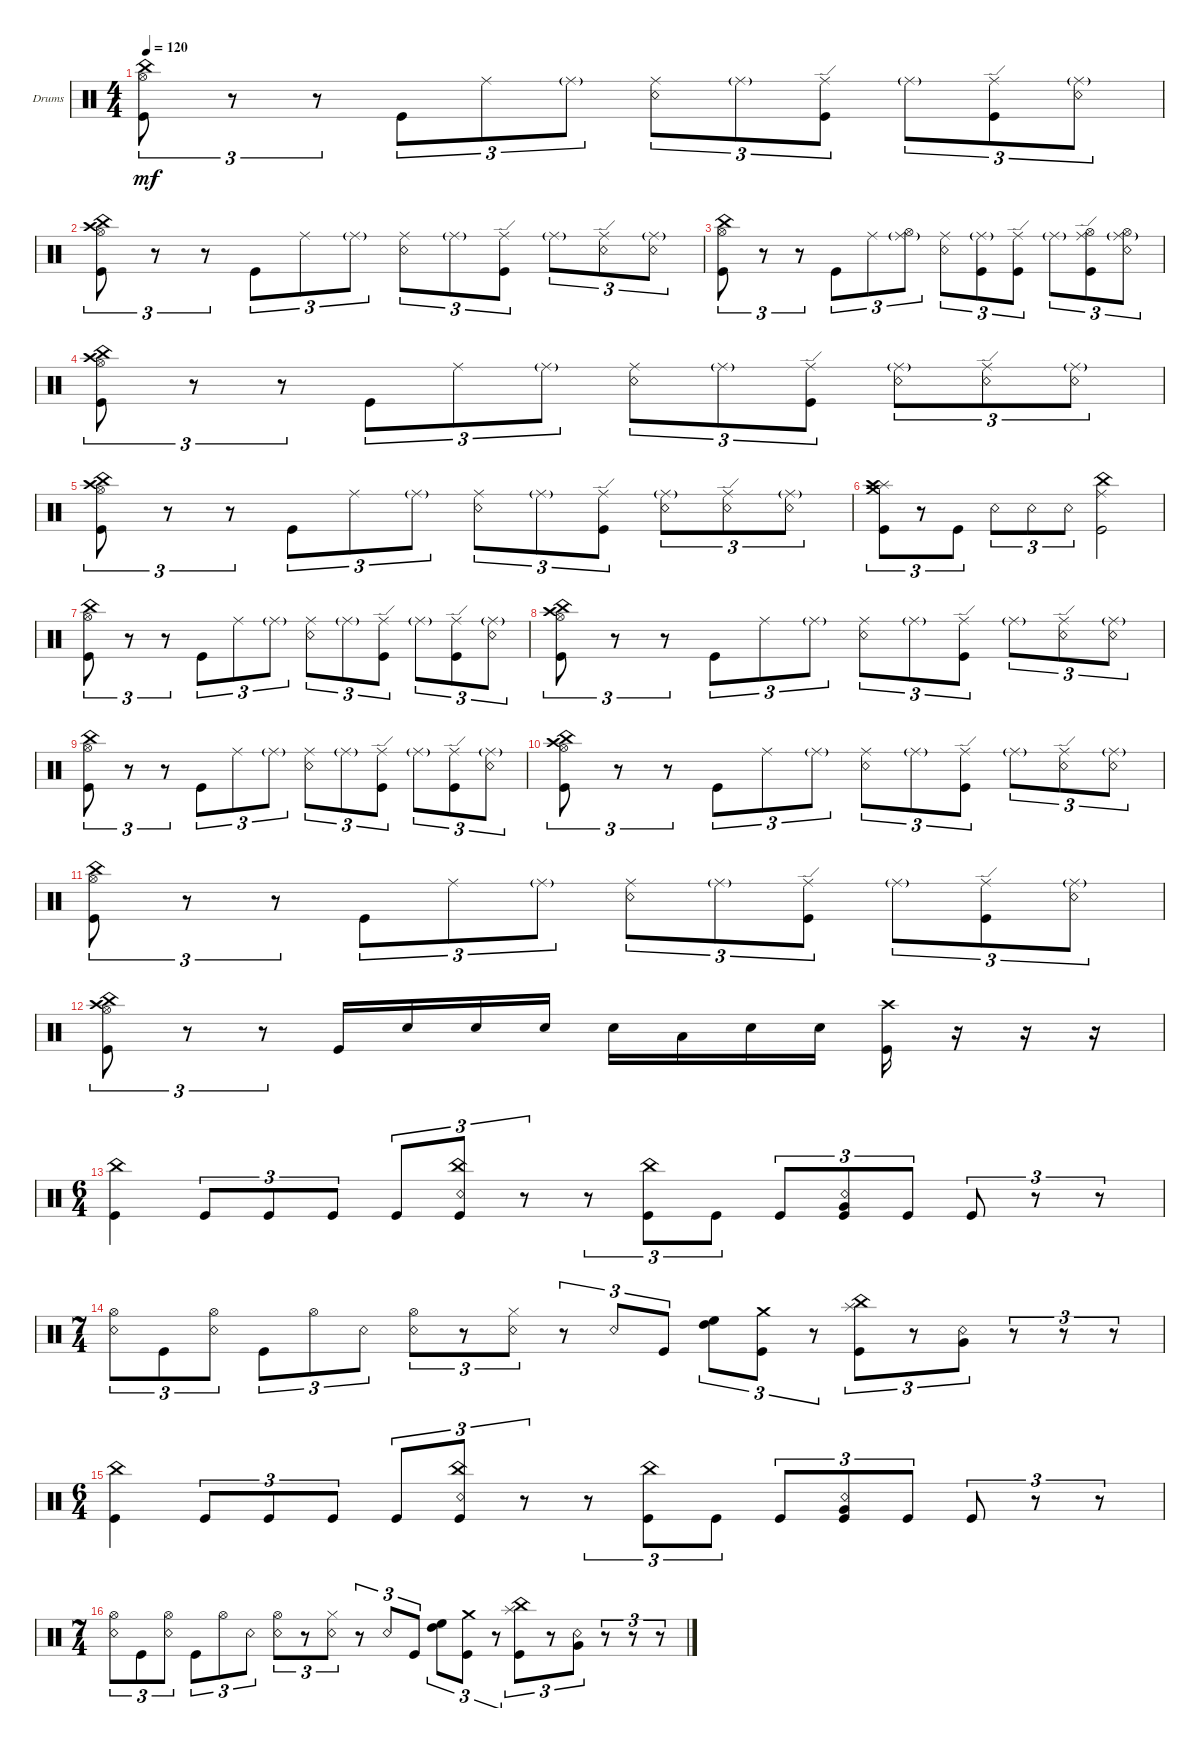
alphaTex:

\defaultSystemsLayout 4
\bracketExtendMode groupsimilarinstruments
\firstSystemTrackNameOrientation horizontal
\otherSystemsTrackNameOrientation horizontal
\track ("Drumkit" "Drums") {instrument percussion}
\staff {score}
\articulation defaults
\ts (4 4)
\tempo 120
\clef neutral
\ks c
("Kick (hit)" "Hi-Hat (open)" "China (hit)").8{tu (3 2) dy mf} r.8{tu (3 2)} r.8{tu (3 2)} "Kick (hit)".8{tu (3 2)} "Ride (middle)".8{tu (3 2)} "Ride (middle)"{g}.8{tu (3 2)} ("Ride (middle)" "Snare (rim shot)").8{tu (3 2)} "Ride (middle)"{g}.8{tu (3 2)} ("Ride (edge)" "Kick (hit)").8{tu (3 2)} "Ride (middle)"{g}.8{tu (3 2)} ("Ride (edge)" "Kick (hit)").8{tu (3 2)} ("Ride (middle)"{g} "Snare (rim shot)").8{tu (3 2)} |
("Kick (hit)" "Hi-Hat (open)" "China (hit)" "Crash high (hit)").8{tu (3 2)} r.8{tu (3 2)} r.8{tu (3 2)} "Kick (hit)".8{tu (3 2)} "Ride (middle)".8{tu (3 2)} "Ride (middle)"{g}.8{tu (3 2)} ("Ride (middle)" "Snare (rim shot)").8{tu (3 2)} "Ride (middle)"{g}.8{tu (3 2)} ("Ride (edge)" "Kick (hit)").8{tu (3 2)} "Ride (middle)"{g}.8{tu (3 2)} ("Ride (edge)" "Snare (rim shot)").8{tu (3 2)} ("Ride (middle)"{g} "Snare (rim shot)").8{tu (3 2)} |
("Kick (hit)" "Hi-Hat (open)" "China (hit)").8{tu (3 2)} r.8{tu (3 2)} r.8{tu (3 2)} "Kick (hit)".8{tu (3 2)} "Ride (middle)".8{tu (3 2)} ("Ride (middle)"{g} "Hi-Hat (open)").8{tu (3 2)} ("Ride (middle)" "Snare (rim shot)").8{tu (3 2)} ("Ride (middle)"{g} "Kick (hit)").8{tu (3 2)} ("Ride (edge)" "Kick (hit)").8{tu (3 2)} "Ride (middle)"{g}.8{tu (3 2)} ("Ride (edge)" "Kick (hit)" "Hi-Hat (open)").8{tu (3 2)} ("Ride (middle)"{g} "Snare (rim shot)" "Hi-Hat (open)").8{tu (3 2)} |
("Kick (hit)" "Hi-Hat (open)" "China (hit)" "Crash high (hit)").8{tu (3 2)} r.8{tu (3 2)} r.8{tu (3 2)} "Kick (hit)".8{tu (3 2)} "Ride (middle)".8{tu (3 2)} "Ride (middle)"{g}.8{tu (3 2)} ("Ride (middle)" "Snare (rim shot)").8{tu (3 2)} "Ride (middle)"{g}.8{tu (3 2)} ("Ride (edge)" "Kick (hit)").8{tu (3 2)} ("Ride (middle)"{g} "Snare (rim shot)").8{tu (3 2)} ("Ride (edge)" "Snare (rim shot)").8{tu (3 2)} ("Ride (middle)"{g} "Snare (rim shot)").8{tu (3 2)} |
("Kick (hit)" "Hi-Hat (open)" "China (hit)" "Crash high (hit)").8{tu (3 2)} r.8{tu (3 2)} r.8{tu (3 2)} "Kick (hit)".8{tu (3 2)} "Ride (middle)".8{tu (3 2)} "Ride (middle)"{g}.8{tu (3 2)} ("Ride (middle)" "Snare (rim shot)").8{tu (3 2)} "Ride (middle)"{g}.8{tu (3 2)} ("Ride (edge)" "Kick (hit)").8{tu (3 2)} ("Ride (middle)"{g} "Snare (rim shot)").8{tu (3 2)} ("Ride (edge)" "Snare (rim shot)").8{tu (3 2)} ("Ride (middle)"{g} "Snare (rim shot)").8{tu (3 2)} |
("Splash (hit)" "Crash medium (hit)" "Crash high (hit)" "Kick (hit)").8{tu (3 2)} r.8{tu (3 2)} "Kick (hit)".8{tu (3 2)} "Snare (rim shot)".8{tu (3 2)} "Snare (rim shot)".8{tu (3 2)} "Snare (rim shot)".8{tu (3 2)} ("Kick (hit)" "Ride (middle)" "China (hit)").2 |
("Kick (hit)" "Hi-Hat (open)" "China (hit)").8{tu (3 2)} r.8{tu (3 2)} r.8{tu (3 2)} "Kick (hit)".8{tu (3 2)} "Ride (middle)".8{tu (3 2)} "Ride (middle)"{g}.8{tu (3 2)} ("Ride (middle)" "Snare (rim shot)").8{tu (3 2)} "Ride (middle)"{g}.8{tu (3 2)} ("Ride (edge)" "Kick (hit)").8{tu (3 2)} "Ride (middle)"{g}.8{tu (3 2)} ("Ride (edge)" "Kick (hit)").8{tu (3 2)} ("Ride (middle)"{g} "Snare (rim shot)").8{tu (3 2)} |
("Kick (hit)" "Hi-Hat (open)" "China (hit)" "Crash high (hit)").8{tu (3 2)} r.8{tu (3 2)} r.8{tu (3 2)} "Kick (hit)".8{tu (3 2)} "Ride (middle)".8{tu (3 2)} "Ride (middle)"{g}.8{tu (3 2)} ("Ride (middle)" "Snare (rim shot)").8{tu (3 2)} "Ride (middle)"{g}.8{tu (3 2)} ("Ride (edge)" "Kick (hit)").8{tu (3 2)} "Ride (middle)"{g}.8{tu (3 2)} ("Ride (edge)" "Snare (rim shot)").8{tu (3 2)} ("Ride (middle)"{g} "Snare (rim shot)").8{tu (3 2)} |
("Kick (hit)" "Hi-Hat (open)" "China (hit)").8{tu (3 2)} r.8{tu (3 2)} r.8{tu (3 2)} "Kick (hit)".8{tu (3 2)} "Ride (middle)".8{tu (3 2)} "Ride (middle)"{g}.8{tu (3 2)} ("Ride (middle)" "Snare (rim shot)").8{tu (3 2)} "Ride (middle)"{g}.8{tu (3 2)} ("Ride (edge)" "Kick (hit)").8{tu (3 2)} "Ride (middle)"{g}.8{tu (3 2)} ("Ride (edge)" "Kick (hit)").8{tu (3 2)} ("Ride (middle)"{g} "Snare (rim shot)").8{tu (3 2)} |
("Kick (hit)" "Hi-Hat (open)" "China (hit)" "Crash high (hit)").8{tu (3 2)} r.8{tu (3 2)} r.8{tu (3 2)} "Kick (hit)".8{tu (3 2)} "Ride (middle)".8{tu (3 2)} "Ride (middle)"{g}.8{tu (3 2)} ("Ride (middle)" "Snare (rim shot)").8{tu (3 2)} "Ride (middle)"{g}.8{tu (3 2)} ("Ride (edge)" "Kick (hit)").8{tu (3 2)} "Ride (middle)"{g}.8{tu (3 2)} ("Ride (edge)" "Snare (rim shot)").8{tu (3 2)} ("Ride (middle)"{g} "Snare (rim shot)").8{tu (3 2)} |
("Kick (hit)" "Hi-Hat (open)" "China (hit)").8{tu (3 2)} r.8{tu (3 2)} r.8{tu (3 2)} "Kick (hit)".8{tu (3 2)} "Ride (middle)".8{tu (3 2)} "Ride (middle)"{g}.8{tu (3 2)} ("Ride (middle)" "Snare (rim shot)").8{tu (3 2)} "Ride (middle)"{g}.8{tu (3 2)} ("Ride (edge)" "Kick (hit)").8{tu (3 2)} "Ride (middle)"{g}.8{tu (3 2)} ("Ride (edge)" "Kick (hit)").8{tu (3 2)} ("Ride (middle)"{g} "Snare (rim shot)").8{tu (3 2)} |
("Kick (hit)" "Hi-Hat (open)" "China (hit)" "Crash high (hit)").8{tu (3 2)} r.8{tu (3 2)} r.8{tu (3 2)} "Kick (hit)".16 "Snare (hit) 2".16 "Snare (hit) 2".16 "Snare (hit) 2".16 "Snare (hit) 2".16 "Low Tom (hit)".16 "Snare (hit) 2".16 "Snare (hit) 2".16 ("Crash high (hit)" "Kick (hit)").16 r.16 r.16 r.16 |
\ts (6 4)
("Kick (hit)" "China (hit)").4 "Kick (hit)".8{tu (3 2)} "Kick (hit)".8{tu (3 2)} "Kick (hit)".8{tu (3 2)} "Kick (hit)".8{tu (3 2)} ("Kick (hit)" "Snare (rim shot)" "China (hit)").8{tu (3 2)} r.8{tu (3 2)} r.8{tu (3 2)} ("Kick (hit)" "China (hit)").8{tu (3 2)} "Kick (hit)".8{tu (3 2)} "Kick (hit)".8{tu (3 2)} ("Kick (hit)" "Snare (rim shot)" "Very Low Tom (hit)").8{tu (3 2)} "Kick (hit)".8{tu (3 2)} "Kick (hit)".8{tu (3 2)} r.8{tu (3 2)} r.8{tu (3 2)} |
\ts (7 4)
("Snare (rim shot)" "Hi-Hat (open)").8{tu (3 2)} "Kick (hit)".8{tu (3 2)} ("Snare (rim shot)" "Hi-Hat (open)").8{tu (3 2)} "Kick (hit)".8{tu (3 2)} "Hi-Hat (open)".8{tu (3 2)} "Snare (rim shot)".8{tu (3 2)} ("Hi-Hat (open)" "Snare (rim shot)").8{tu (3 2)} r.8{tu (3 2)} ("Snare (rim shot)" "Hi-Hat (closed)").8{tu (3 2)} r.8{tu (3 2)} "Snare (rim shot)".8{tu (3 2)} "Kick (hit)".8{tu (3 2)} ("High Tom (hit)" "High Floor Tom (hit)").8{tu (3 2)} ("Kick (hit)" "Crash medium (hit)").8{tu (3 2)} r.8{tu (3 2)} ("Kick (hit)" "Splash (hit)" "China (hit)").8{tu (3 2)} r.8{tu (3 2)} ("Snare (rim shot)" "Very Low Tom (hit)").8{tu (3 2)} r.8{tu (3 2)} r.8{tu (3 2)} r.8{tu (3 2)} |
\ts (6 4)
("Kick (hit)" "China (hit)").4 "Kick (hit)".8{tu (3 2)} "Kick (hit)".8{tu (3 2)} "Kick (hit)".8{tu (3 2)} "Kick (hit)".8{tu (3 2)} ("Kick (hit)" "Snare (rim shot)" "China (hit)").8{tu (3 2)} r.8{tu (3 2)} r.8{tu (3 2)} ("Kick (hit)" "China (hit)").8{tu (3 2)} "Kick (hit)".8{tu (3 2)} "Kick (hit)".8{tu (3 2)} ("Kick (hit)" "Snare (rim shot)" "Very Low Tom (hit)").8{tu (3 2)} "Kick (hit)".8{tu (3 2)} "Kick (hit)".8{tu (3 2)} r.8{tu (3 2)} r.8{tu (3 2)} |
\ts (7 4)
("Snare (rim shot)" "Hi-Hat (open)").8{tu (3 2)} "Kick (hit)".8{tu (3 2)} ("Snare (rim shot)" "Hi-Hat (open)").8{tu (3 2)} "Kick (hit)".8{tu (3 2)} "Hi-Hat (open)".8{tu (3 2)} "Snare (rim shot)".8{tu (3 2)} ("Hi-Hat (open)" "Snare (rim shot)").8{tu (3 2)} r.8{tu (3 2)} ("Snare (rim shot)" "Hi-Hat (closed)").8{tu (3 2)} r.8{tu (3 2)} "Snare (rim shot)".8{tu (3 2)} "Kick (hit)".8{tu (3 2)} ("High Tom (hit)" "High Floor Tom (hit)").8{tu (3 2)} ("Kick (hit)" "Crash medium (hit)").8{tu (3 2)} r.8{tu (3 2)} ("Kick (hit)" "Splash (hit)" "China (hit)").8{tu (3 2)} r.8{tu (3 2)} ("Snare (rim shot)" "Very Low Tom (hit)").8{tu (3 2)} r.8{tu (3 2)} r.8{tu (3 2)} r.8{tu (3 2)}
